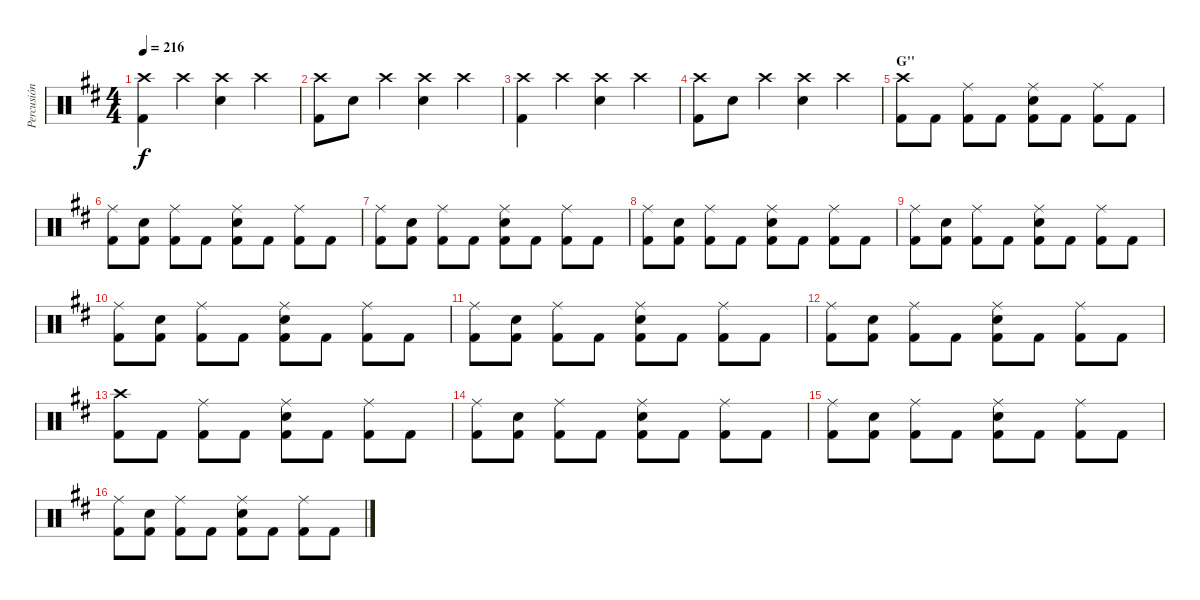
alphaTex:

\track ("Percusión" "Percusión") {instrument percussion}
\staff {score}
\articulation defaults
\ts (4 4)
\tempo 216
\clef neutral
\ks d
("Crash high (hit)" "Kick (hit) 2").4{dy f} "Crash high (hit)".4 ("Crash high (hit)" "Electric Snare (hit)").4 "Crash high (hit)".4 |
("Crash high (hit)" "Kick (hit) 2").8 "Electric Snare (hit)".8 "Crash high (hit)".4 ("Crash high (hit)" "Electric Snare (hit)").4 "Crash high (hit)".4 |
("Crash high (hit)" "Kick (hit) 2").4 "Crash high (hit)".4 ("Crash high (hit)" "Electric Snare (hit)").4 "Crash high (hit)".4 |
("Crash high (hit)" "Kick (hit) 2").8 "Electric Snare (hit)".8 "Crash high (hit)".4 ("Crash high (hit)" "Electric Snare (hit)").4 "Crash high (hit)".4 |
\section ("" "G''")
("Crash high (hit)" "Kick (hit) 2").8 "Kick (hit) 2".8 ("Ride (middle)" "Kick (hit) 2").8 "Kick (hit) 2".8 ("Ride (middle)" "Electric Snare (hit)" "Kick (hit) 2").8 "Kick (hit) 2".8 ("Ride (middle)" "Kick (hit) 2").8 "Kick (hit) 2".8 |
("Ride (middle)" "Kick (hit) 2").8 ("Electric Snare (hit)" "Kick (hit) 2").8 ("Ride (middle)" "Kick (hit) 2").8 "Kick (hit) 2".8 ("Ride (middle)" "Electric Snare (hit)" "Kick (hit) 2").8 "Kick (hit) 2".8 ("Ride (middle)" "Kick (hit) 2").8 "Kick (hit) 2".8 |
("Ride (middle)" "Kick (hit) 2").8 ("Electric Snare (hit)" "Kick (hit) 2").8 ("Ride (middle)" "Kick (hit) 2").8 "Kick (hit) 2".8 ("Ride (middle)" "Electric Snare (hit)" "Kick (hit) 2").8 "Kick (hit) 2".8 ("Ride (middle)" "Kick (hit) 2").8 "Kick (hit) 2".8 |
("Ride (middle)" "Kick (hit) 2").8 ("Electric Snare (hit)" "Kick (hit) 2").8 ("Ride (middle)" "Kick (hit) 2").8 "Kick (hit) 2".8 ("Ride (middle)" "Electric Snare (hit)" "Kick (hit) 2").8 "Kick (hit) 2".8 ("Ride (middle)" "Kick (hit) 2").8 "Kick (hit) 2".8 |
("Ride (middle)" "Kick (hit) 2").8 ("Electric Snare (hit)" "Kick (hit) 2").8 ("Ride (middle)" "Kick (hit) 2").8 "Kick (hit) 2".8 ("Ride (middle)" "Electric Snare (hit)" "Kick (hit) 2").8 "Kick (hit) 2".8 ("Ride (middle)" "Kick (hit) 2").8 "Kick (hit) 2".8 |
("Ride (middle)" "Kick (hit) 2").8 ("Electric Snare (hit)" "Kick (hit) 2").8 ("Ride (middle)" "Kick (hit) 2").8 "Kick (hit) 2".8 ("Ride (middle)" "Electric Snare (hit)" "Kick (hit) 2").8 "Kick (hit) 2".8 ("Ride (middle)" "Kick (hit) 2").8 "Kick (hit) 2".8 |
("Ride (middle)" "Kick (hit) 2").8 ("Electric Snare (hit)" "Kick (hit) 2").8 ("Ride (middle)" "Kick (hit) 2").8 "Kick (hit) 2".8 ("Ride (middle)" "Electric Snare (hit)" "Kick (hit) 2").8 "Kick (hit) 2".8 ("Ride (middle)" "Kick (hit) 2").8 "Kick (hit) 2".8 |
("Ride (middle)" "Kick (hit) 2").8 ("Electric Snare (hit)" "Kick (hit) 2").8 ("Ride (middle)" "Kick (hit) 2").8 "Kick (hit) 2".8 ("Ride (middle)" "Electric Snare (hit)" "Kick (hit) 2").8 "Kick (hit) 2".8 ("Ride (middle)" "Kick (hit) 2").8 "Kick (hit) 2".8 |
("Crash high (hit)" "Kick (hit) 2").8 "Kick (hit) 2".8 ("Ride (middle)" "Kick (hit) 2").8 "Kick (hit) 2".8 ("Ride (middle)" "Electric Snare (hit)" "Kick (hit) 2").8 "Kick (hit) 2".8 ("Ride (middle)" "Kick (hit) 2").8 "Kick (hit) 2".8 |
("Ride (middle)" "Kick (hit) 2").8 ("Electric Snare (hit)" "Kick (hit) 2").8 ("Ride (middle)" "Kick (hit) 2").8 "Kick (hit) 2".8 ("Ride (middle)" "Electric Snare (hit)" "Kick (hit) 2").8 "Kick (hit) 2".8 ("Ride (middle)" "Kick (hit) 2").8 "Kick (hit) 2".8 |
("Ride (middle)" "Kick (hit) 2").8 ("Electric Snare (hit)" "Kick (hit) 2").8 ("Ride (middle)" "Kick (hit) 2").8 "Kick (hit) 2".8 ("Ride (middle)" "Electric Snare (hit)" "Kick (hit) 2").8 "Kick (hit) 2".8 ("Ride (middle)" "Kick (hit) 2").8 "Kick (hit) 2".8 |
("Ride (middle)" "Kick (hit) 2").8 ("Electric Snare (hit)" "Kick (hit) 2").8 ("Ride (middle)" "Kick (hit) 2").8 "Kick (hit) 2".8 ("Ride (middle)" "Electric Snare (hit)" "Kick (hit) 2").8 "Kick (hit) 2".8 ("Ride (middle)" "Kick (hit) 2").8 "Kick (hit) 2".8
